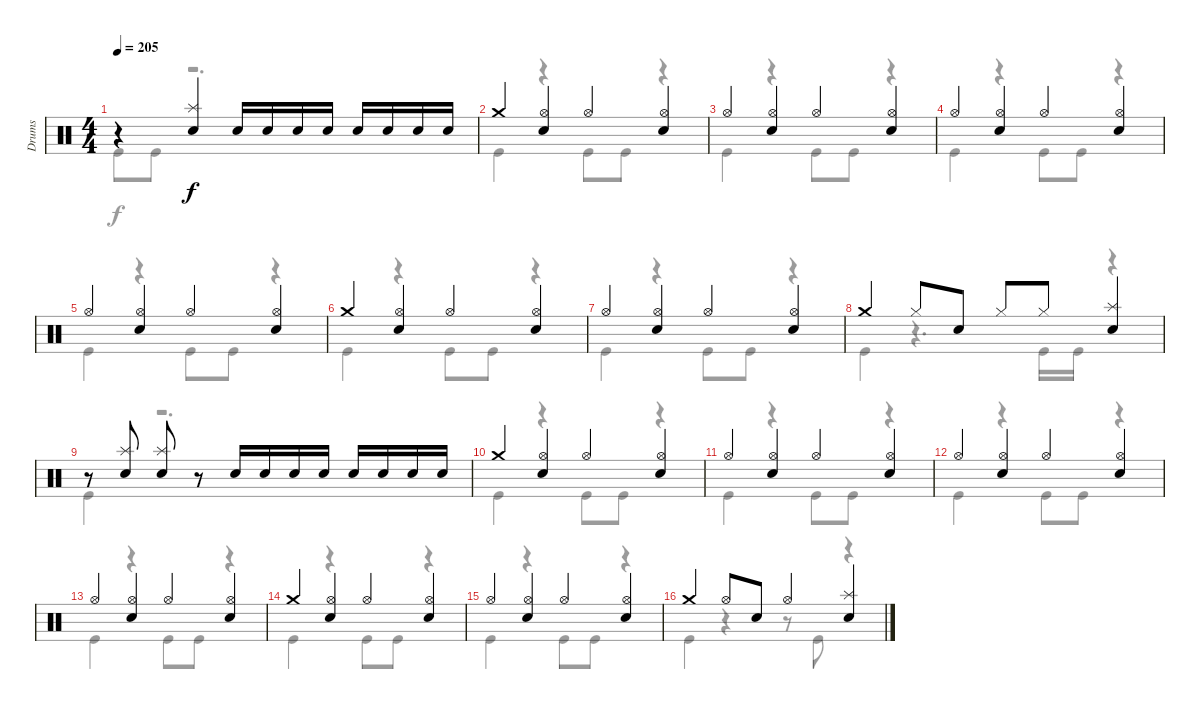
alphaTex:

\track ("Drums" "Drums") {instrument percussion}
\staff {score}
\articulation defaults
\voice
\ts (4 4)
\tempo 205
\clef neutral
\ks c
r.4{dy f} ("Splash (hit)" "Snare (hit) 2").4 "Snare (hit) 2".16 "Snare (hit) 2".16 "Snare (hit) 2".16 "Snare (hit) 2".16 "Snare (hit) 2".16 "Snare (hit) 2".16 "Snare (hit) 2".16 "Snare (hit) 2".16 |
"Crash medium (hit)".4 ("Hi-Hat (open)" "Snare (hit) 2").4 "Hi-Hat (open)".4 ("Hi-Hat (open)" "Snare (hit) 2").4 |
"Hi-Hat (open)".4 ("Hi-Hat (open)" "Snare (hit) 2").4 "Hi-Hat (open)".4 ("Hi-Hat (open)" "Snare (hit) 2").4 |
"Hi-Hat (open)".4 ("Hi-Hat (open)" "Snare (hit) 2").4 "Hi-Hat (open)".4 ("Hi-Hat (open)" "Snare (hit) 2").4 |
"Hi-Hat (open)".4 ("Hi-Hat (open)" "Snare (hit) 2").4 "Hi-Hat (open)".4 ("Hi-Hat (open)" "Snare (hit) 2").4 |
"Crash medium (hit)".4 ("Hi-Hat (open)" "Snare (hit) 2").4 "Hi-Hat (open)".4 ("Hi-Hat (open)" "Snare (hit) 2").4 |
"Hi-Hat (open)".4 ("Hi-Hat (open)" "Snare (hit) 2").4 "Hi-Hat (open)".4 ("Hi-Hat (open)" "Snare (hit) 2").4 |
"Crash medium (hit)".4 "Hi-Hat (closed)".8 "Snare (hit) 2".8 "Hi-Hat (closed)".8 "Hi-Hat (closed)".8 ("Splash (hit)" "Snare (hit) 2").4 |
r.8 ("Splash (hit)" "Snare (hit) 2").8 ("Splash (hit)" "Snare (hit) 2").8 r.8 "Snare (hit) 2".16 "Snare (hit) 2".16 "Snare (hit) 2".16 "Snare (hit) 2".16 "Snare (hit) 2".16 "Snare (hit) 2".16 "Snare (hit) 2".16 "Snare (hit) 2".16 |
"Crash medium (hit)".4 ("Hi-Hat (open)" "Snare (hit) 2").4 "Hi-Hat (open)".4 ("Hi-Hat (open)" "Snare (hit) 2").4 |
"Hi-Hat (open)".4 ("Hi-Hat (open)" "Snare (hit) 2").4 "Hi-Hat (open)".4 ("Hi-Hat (open)" "Snare (hit) 2").4 |
"Hi-Hat (open)".4 ("Hi-Hat (open)" "Snare (hit) 2").4 "Hi-Hat (open)".4 ("Hi-Hat (open)" "Snare (hit) 2").4 |
"Hi-Hat (open)".4 ("Hi-Hat (open)" "Snare (hit) 2").4 "Hi-Hat (open)".4 ("Hi-Hat (open)" "Snare (hit) 2").4 |
"Crash medium (hit)".4 ("Hi-Hat (open)" "Snare (hit) 2").4 "Hi-Hat (open)".4 ("Hi-Hat (open)" "Snare (hit) 2").4 |
"Hi-Hat (open)".4 ("Hi-Hat (open)" "Snare (hit) 2").4 "Hi-Hat (open)".4 ("Hi-Hat (open)" "Snare (hit) 2").4 |
"Crash medium (hit)".4 "Hi-Hat (open)".8 "Snare (hit) 2".8 "Hi-Hat (open)".4 ("Splash (hit)" "Snare (hit) 2").4
\voice
\clef neutral
\ottava regular
\simile none
\ks c "Kick (hit)".8{dy f} "Kick (hit)".8
r.2{d} |
"Kick (hit)".4 r.4 "Kick (hit)".8 "Kick (hit)".8 r.4 |
"Kick (hit)".4 r.4 "Kick (hit)".8 "Kick (hit)".8 r.4 |
"Kick (hit)".4 r.4 "Kick (hit)".8 "Kick (hit)".8 r.4 |
"Kick (hit)".4 r.4 "Kick (hit)".8 "Kick (hit)".8 r.4 |
"Kick (hit)".4 r.4 "Kick (hit)".8 "Kick (hit)".8 r.4 |
"Kick (hit)".4 r.4 "Kick (hit)".8 "Kick (hit)".8 r.4 |
"Kick (hit)".4 r.4{d} "Kick (hit)".16 "Kick (hit)".16 r.4 |
"Kick (hit)".4 r.2{d} |
"Kick (hit)".4 r.4 "Kick (hit)".8 "Kick (hit)".8 r.4 |
"Kick (hit)".4 r.4 "Kick (hit)".8 "Kick (hit)".8 r.4 |
"Kick (hit)".4 r.4 "Kick (hit)".8 "Kick (hit)".8 r.4 |
"Kick (hit)".4 r.4 "Kick (hit)".8 "Kick (hit)".8 r.4 |
"Kick (hit)".4 r.4 "Kick (hit)".8 "Kick (hit)".8 r.4 |
"Kick (hit)".4 r.4 "Kick (hit)".8 "Kick (hit)".8 r.4 |
"Kick (hit)".4 r.4 r.8 "Kick (hit)".8 r.4
